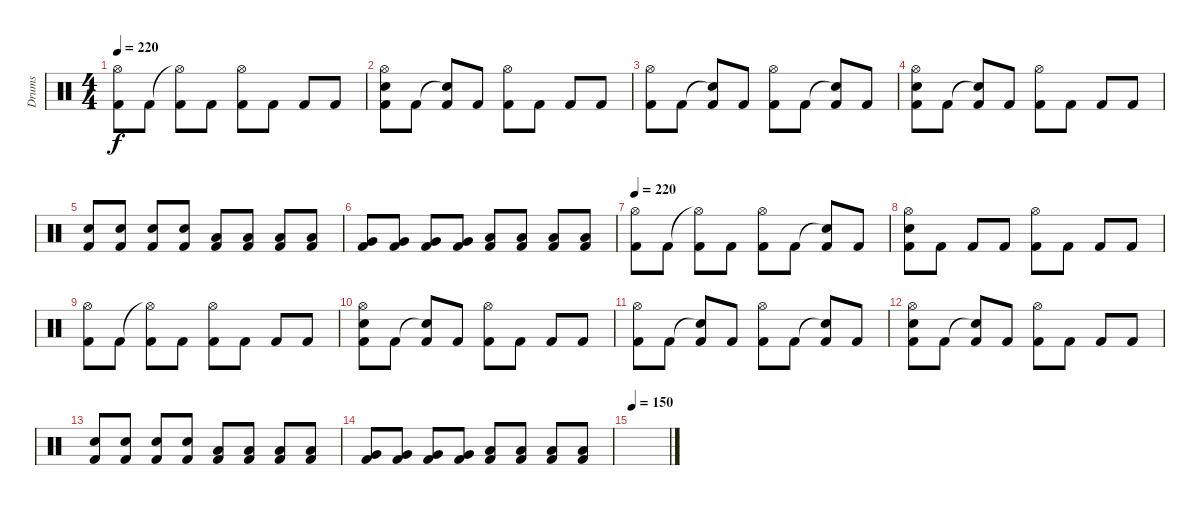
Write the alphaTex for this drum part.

\track ("Drums" "Drums") {instrument percussion}
\staff {score}
\articulation defaults
\ts (4 4)
\tempo 220
\clef neutral
\ks c
("Hi-Hat (open)" "Kick (hit) 2").8{dy f} "Kick (hit) 2".8 ("Hi-Hat (open)"{t} "Kick (hit) 2").8 "Kick (hit) 2".8 ("Hi-Hat (open)" "Kick (hit) 2").8 "Kick (hit) 2".8 "Kick (hit) 2".8 "Kick (hit) 2".8 |
("Hi-Hat (open)" "Snare (hit) 2" "Kick (hit) 2").8 "Kick (hit) 2".8 ("Snare (hit)"{t} "Kick (hit) 2").8 "Kick (hit) 2".8 ("Hi-Hat (open)" "Kick (hit) 2").8 "Kick (hit) 2".8 "Kick (hit) 2".8 "Kick (hit) 2".8 |
("Hi-Hat (open)" "Kick (hit) 2").8 "Kick (hit) 2".8 ("Snare (hit)"{t} "Kick (hit) 2").8 "Kick (hit) 2".8 ("Hi-Hat (open)" "Kick (hit) 2").8 "Kick (hit) 2".8 ("Snare (hit)"{t} "Kick (hit) 2").8 "Kick (hit) 2".8 |
("Hi-Hat (open)" "Snare (hit) 2" "Kick (hit) 2").8 "Kick (hit) 2".8 ("Snare (hit)"{t} "Kick (hit) 2").8 "Kick (hit) 2".8 ("Hi-Hat (open)" "Kick (hit) 2").8 "Kick (hit) 2".8 "Kick (hit) 2".8 "Kick (hit) 2".8 |
("Snare (hit) 2" "Kick (hit) 2").8 ("Snare (hit) 2" "Kick (hit) 2").8 ("Snare (hit) 2" "Kick (hit) 2").8 ("Snare (hit) 2" "Kick (hit) 2").8 ("Low Tom (hit)" "Kick (hit) 2").8 ("Low Tom (hit)" "Kick (hit) 2").8 ("Low Tom (hit)" "Kick (hit) 2").8 ("Low Tom (hit)" "Kick (hit) 2").8 |
("Very Low Tom (hit)" "Kick (hit) 2").8 ("Very Low Tom (hit)" "Kick (hit) 2").8 ("Very Low Tom (hit)" "Kick (hit) 2").8 ("Very Low Tom (hit)" "Kick (hit) 2").8 ("Low Floor Tom (hit)" "Kick (hit) 2").8 ("Low Floor Tom (hit)" "Kick (hit) 2").8 ("Low Floor Tom (hit)" "Kick (hit) 2").8 ("Low Floor Tom (hit)" "Kick (hit) 2").8 |
\tempo 220
("Hi-Hat (open)" "Kick (hit) 2").8 "Kick (hit) 2".8 ("Hi-Hat (open)"{t} "Kick (hit) 2").8 "Kick (hit) 2".8 ("Hi-Hat (open)" "Kick (hit) 2").8 "Kick (hit) 2".8 ("Snare (hit)"{t} "Kick (hit) 2").8 "Kick (hit) 2".8 |
("Hi-Hat (open)" "Snare (hit) 2" "Kick (hit) 2").8 "Kick (hit) 2".8 "Kick (hit) 2".8 "Kick (hit) 2".8 ("Hi-Hat (open)" "Kick (hit) 2").8 "Kick (hit) 2".8 "Kick (hit) 2".8 "Kick (hit) 2".8 |
("Hi-Hat (open)" "Kick (hit) 2").8 "Kick (hit) 2".8 ("Hi-Hat (open)"{t} "Kick (hit) 2").8 "Kick (hit) 2".8 ("Hi-Hat (open)" "Kick (hit) 2").8 "Kick (hit) 2".8 "Kick (hit) 2".8 "Kick (hit) 2".8 |
("Hi-Hat (open)" "Snare (hit) 2" "Kick (hit) 2").8 "Kick (hit) 2".8 ("Snare (hit)"{t} "Kick (hit) 2").8 "Kick (hit) 2".8 ("Hi-Hat (open)" "Kick (hit) 2").8 "Kick (hit) 2".8 "Kick (hit) 2".8 "Kick (hit) 2".8 |
("Hi-Hat (open)" "Kick (hit) 2").8 "Kick (hit) 2".8 ("Snare (hit)"{t} "Kick (hit) 2").8 "Kick (hit) 2".8 ("Hi-Hat (open)" "Kick (hit) 2").8 "Kick (hit) 2".8 ("Snare (hit)"{t} "Kick (hit) 2").8 "Kick (hit) 2".8 |
("Hi-Hat (open)" "Snare (hit) 2" "Kick (hit) 2").8 "Kick (hit) 2".8 ("Snare (hit)"{t} "Kick (hit) 2").8 "Kick (hit) 2".8 ("Hi-Hat (open)" "Kick (hit) 2").8 "Kick (hit) 2".8 "Kick (hit) 2".8 "Kick (hit) 2".8 |
("Snare (hit) 2" "Kick (hit) 2").8 ("Snare (hit) 2" "Kick (hit) 2").8 ("Snare (hit) 2" "Kick (hit) 2").8 ("Snare (hit) 2" "Kick (hit) 2").8 ("Low Tom (hit)" "Kick (hit) 2").8 ("Low Tom (hit)" "Kick (hit) 2").8 ("Low Tom (hit)" "Kick (hit) 2").8 ("Low Tom (hit)" "Kick (hit) 2").8 |
("Very Low Tom (hit)" "Kick (hit) 2").8 ("Very Low Tom (hit)" "Kick (hit) 2").8 ("Very Low Tom (hit)" "Kick (hit) 2").8 ("Very Low Tom (hit)" "Kick (hit) 2").8 ("Low Floor Tom (hit)" "Kick (hit) 2").8 ("Low Floor Tom (hit)" "Kick (hit) 2").8 ("Low Floor Tom (hit)" "Kick (hit) 2").8 ("Low Floor Tom (hit)" "Kick (hit) 2").8 |
\tempo 150
